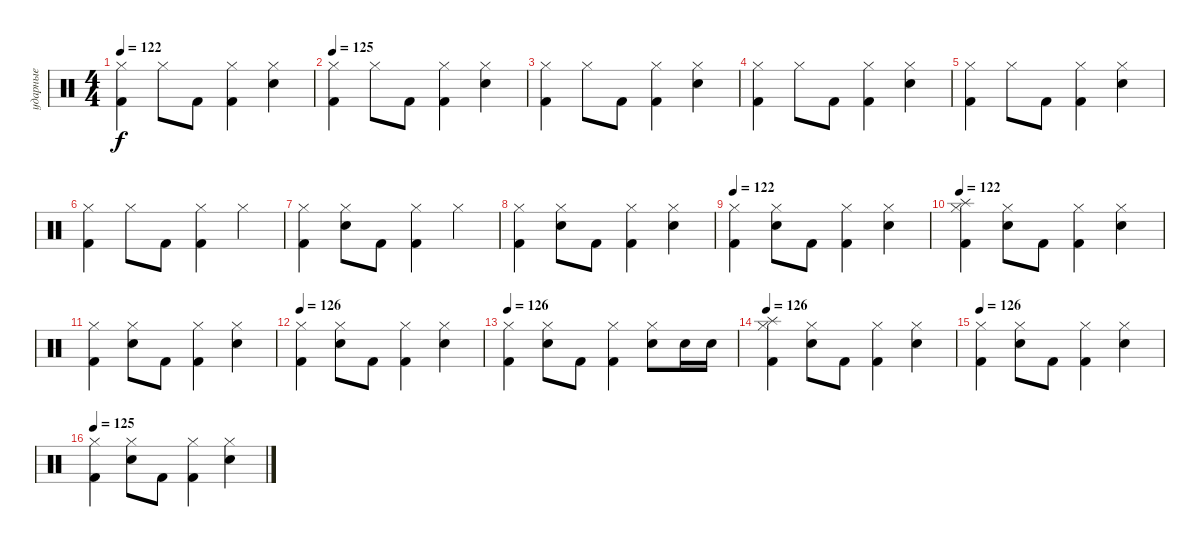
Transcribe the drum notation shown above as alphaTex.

\track ("ударные" "ударные") {instrument percussion}
\staff {score}
\articulation defaults
\ts (4 4)
\tempo 122
\clef neutral
\ks c
("Hi-Hat (closed)" "Kick (hit) 2").4{dy f} "Hi-Hat (closed)".8 "Kick (hit) 2".8 ("Hi-Hat (closed)" "Kick (hit) 2").4 ("Hi-Hat (closed)" "Electric Snare (hit)").4 |
\tempo 125
("Hi-Hat (closed)" "Kick (hit) 2").4 "Hi-Hat (closed)".8 "Kick (hit) 2".8 ("Hi-Hat (closed)" "Kick (hit) 2").4 ("Hi-Hat (closed)" "Electric Snare (hit)").4 |
("Hi-Hat (closed)" "Kick (hit) 2").4 "Hi-Hat (closed)".8 "Kick (hit) 2".8 ("Hi-Hat (closed)" "Kick (hit) 2").4 ("Hi-Hat (closed)" "Electric Snare (hit)").4 |
("Hi-Hat (closed)" "Kick (hit) 2").4 "Hi-Hat (closed)".8 "Kick (hit) 2".8 ("Hi-Hat (closed)" "Kick (hit) 2").4 ("Hi-Hat (closed)" "Electric Snare (hit)").4 |
("Hi-Hat (closed)" "Kick (hit) 2").4 "Hi-Hat (closed)".8 "Kick (hit) 2".8 ("Hi-Hat (closed)" "Kick (hit) 2").4 ("Hi-Hat (closed)" "Electric Snare (hit)").4 |
("Hi-Hat (closed)" "Kick (hit) 2").4 "Hi-Hat (closed)".8 "Kick (hit) 2".8 ("Hi-Hat (closed)" "Kick (hit) 2").4 "Hi-Hat (closed)".4 |
("Kick (hit) 2" "Hi-Hat (closed)").4 ("Hi-Hat (closed)" "Electric Snare (hit)").8 "Kick (hit) 2".8 ("Kick (hit) 2" "Hi-Hat (closed)").4 "Hi-Hat (closed)".4 |
("Hi-Hat (closed)" "Kick (hit) 2").4 ("Electric Snare (hit)" "Hi-Hat (closed)").8 "Kick (hit) 2".8 ("Hi-Hat (closed)" "Kick (hit) 2").4 ("Hi-Hat (closed)" "Electric Snare (hit)").4 |
\tempo 122
("Kick (hit) 2" "Hi-Hat (closed)").4 ("Hi-Hat (closed)" "Electric Snare (hit)").8 "Kick (hit) 2".8 ("Hi-Hat (closed)" "Kick (hit) 2").4 ("Hi-Hat (closed)" "Electric Snare (hit)").4 |
\tempo 122
("Splash (hit)" "Hi-Hat (closed)" "Kick (hit) 2").4 ("Hi-Hat (closed)" "Electric Snare (hit)").8 "Kick (hit) 2".8 ("Kick (hit) 2" "Hi-Hat (closed)").4 ("Electric Snare (hit)" "Hi-Hat (closed)").4 |
("Hi-Hat (closed)" "Kick (hit) 2").4 ("Electric Snare (hit)" "Hi-Hat (closed)").8 "Kick (hit) 2".8 ("Hi-Hat (closed)" "Kick (hit) 2").4 ("Hi-Hat (closed)" "Electric Snare (hit)").4 |
\tempo 126
("Kick (hit) 2" "Hi-Hat (closed)").4 ("Hi-Hat (closed)" "Electric Snare (hit)").8 "Kick (hit) 2".8 ("Hi-Hat (closed)" "Kick (hit) 2").4 ("Electric Snare (hit)" "Hi-Hat (closed)").4 |
\tempo 126
("Hi-Hat (closed)" "Kick (hit) 2").4 ("Hi-Hat (closed)" "Electric Snare (hit)").8 "Kick (hit) 2".8 ("Hi-Hat (closed)" "Kick (hit) 2").4 ("Hi-Hat (closed)" "Electric Snare (hit)").8 "Electric Snare (hit)".16 "Electric Snare (hit)".16 |
\tempo 126
("Splash (hit)" "Kick (hit) 2" "Hi-Hat (closed)").4 ("Electric Snare (hit)" "Hi-Hat (closed)").8 "Kick (hit) 2".8 ("Hi-Hat (closed)" "Kick (hit) 2").4 ("Electric Snare (hit)" "Hi-Hat (closed)").4 |
\tempo 126
("Kick (hit) 2" "Hi-Hat (closed)").4 ("Hi-Hat (closed)" "Electric Snare (hit)").8 "Kick (hit) 2".8 ("Kick (hit) 2" "Hi-Hat (closed)").4 ("Electric Snare (hit)" "Hi-Hat (closed)").4 |
\tempo 125
("Kick (hit) 2" "Hi-Hat (closed)").4 ("Electric Snare (hit)" "Hi-Hat (closed)").8 "Kick (hit) 2".8 ("Kick (hit) 2" "Hi-Hat (closed)").4 ("Hi-Hat (closed)" "Electric Snare (hit)").4
